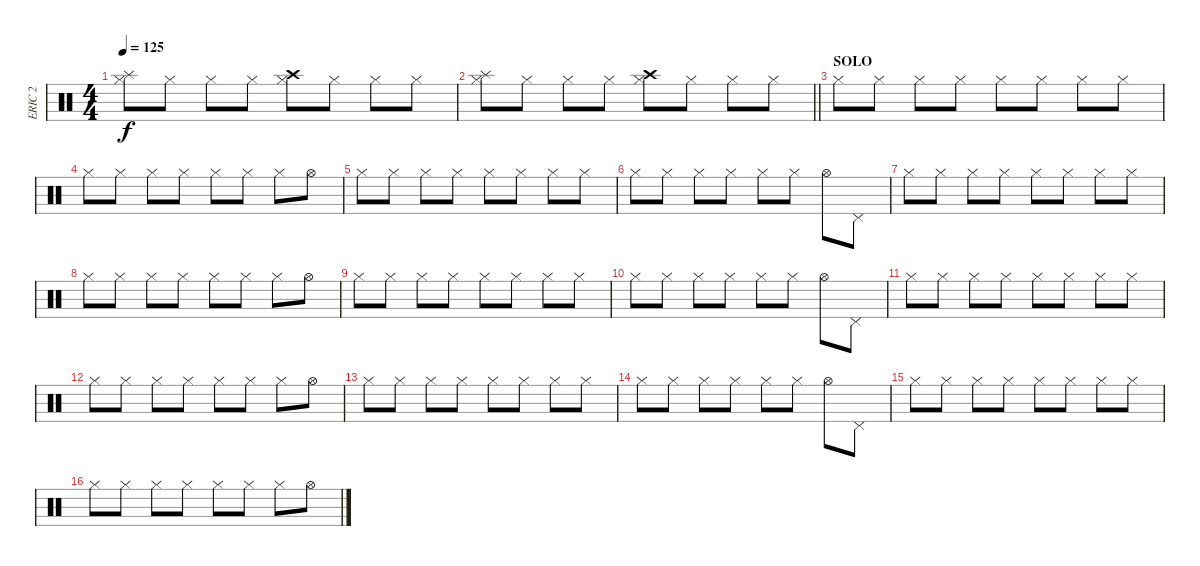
\track ("ERIC 2" "ERIC 2") {instrument percussion}
\staff {score}
\articulation defaults
\ts (4 4)
\tempo 125
\clef neutral
\ks c
("Splash (hit)" "Hi-Hat (closed)").8{dy f} "Hi-Hat (closed)".8 "Hi-Hat (closed)".8 "Hi-Hat (closed)".8 ("Crash high (hit)" "Hi-Hat (closed)").8 "Hi-Hat (closed)".8 "Hi-Hat (closed)".8 "Hi-Hat (closed)".8 |
\barLineRight lightlight
("Splash (hit)" "Hi-Hat (closed)").8 "Hi-Hat (closed)".8 "Hi-Hat (closed)".8 "Hi-Hat (closed)".8 ("Crash high (hit)" "Hi-Hat (closed)").8 "Hi-Hat (closed)".8 "Hi-Hat (closed)".8 "Hi-Hat (closed)".8 |
\section ("" "SOLO")
"Hi-Hat (closed)".8 "Hi-Hat (closed)".8 "Hi-Hat (closed)".8 "Hi-Hat (closed)".8 "Hi-Hat (closed)".8 "Hi-Hat (closed)".8 "Hi-Hat (closed)".8 "Hi-Hat (closed)".8 |
"Hi-Hat (closed)".8 "Hi-Hat (closed)".8 "Hi-Hat (closed)".8 "Hi-Hat (closed)".8 "Hi-Hat (closed)".8 "Hi-Hat (closed)".8 "Hi-Hat (closed)".8 "Hi-Hat (open)".8 |
"Hi-Hat (closed)".8 "Hi-Hat (closed)".8 "Hi-Hat (closed)".8 "Hi-Hat (closed)".8 "Hi-Hat (closed)".8 "Hi-Hat (closed)".8 "Hi-Hat (closed)".8 "Hi-Hat (closed)".8 |
"Hi-Hat (closed)".8 "Hi-Hat (closed)".8 "Hi-Hat (closed)".8 "Hi-Hat (closed)".8 "Hi-Hat (closed)".8 "Hi-Hat (closed)".8 "Hi-Hat (open)".8 "Pedal Hi-Hat (hit)".8 |
"Hi-Hat (closed)".8 "Hi-Hat (closed)".8 "Hi-Hat (closed)".8 "Hi-Hat (closed)".8 "Hi-Hat (closed)".8 "Hi-Hat (closed)".8 "Hi-Hat (closed)".8 "Hi-Hat (closed)".8 |
"Hi-Hat (closed)".8 "Hi-Hat (closed)".8 "Hi-Hat (closed)".8 "Hi-Hat (closed)".8 "Hi-Hat (closed)".8 "Hi-Hat (closed)".8 "Hi-Hat (closed)".8 "Hi-Hat (open)".8 |
"Hi-Hat (closed)".8 "Hi-Hat (closed)".8 "Hi-Hat (closed)".8 "Hi-Hat (closed)".8 "Hi-Hat (closed)".8 "Hi-Hat (closed)".8 "Hi-Hat (closed)".8 "Hi-Hat (closed)".8 |
"Hi-Hat (closed)".8 "Hi-Hat (closed)".8 "Hi-Hat (closed)".8 "Hi-Hat (closed)".8 "Hi-Hat (closed)".8 "Hi-Hat (closed)".8 "Hi-Hat (open)".8 "Pedal Hi-Hat (hit)".8 |
"Hi-Hat (closed)".8 "Hi-Hat (closed)".8 "Hi-Hat (closed)".8 "Hi-Hat (closed)".8 "Hi-Hat (closed)".8 "Hi-Hat (closed)".8 "Hi-Hat (closed)".8 "Hi-Hat (closed)".8 |
"Hi-Hat (closed)".8 "Hi-Hat (closed)".8 "Hi-Hat (closed)".8 "Hi-Hat (closed)".8 "Hi-Hat (closed)".8 "Hi-Hat (closed)".8 "Hi-Hat (closed)".8 "Hi-Hat (open)".8 |
"Hi-Hat (closed)".8 "Hi-Hat (closed)".8 "Hi-Hat (closed)".8 "Hi-Hat (closed)".8 "Hi-Hat (closed)".8 "Hi-Hat (closed)".8 "Hi-Hat (closed)".8 "Hi-Hat (closed)".8 |
"Hi-Hat (closed)".8 "Hi-Hat (closed)".8 "Hi-Hat (closed)".8 "Hi-Hat (closed)".8 "Hi-Hat (closed)".8 "Hi-Hat (closed)".8 "Hi-Hat (open)".8 "Pedal Hi-Hat (hit)".8 |
"Hi-Hat (closed)".8 "Hi-Hat (closed)".8 "Hi-Hat (closed)".8 "Hi-Hat (closed)".8 "Hi-Hat (closed)".8 "Hi-Hat (closed)".8 "Hi-Hat (closed)".8 "Hi-Hat (closed)".8 |
"Hi-Hat (closed)".8 "Hi-Hat (closed)".8 "Hi-Hat (closed)".8 "Hi-Hat (closed)".8 "Hi-Hat (closed)".8 "Hi-Hat (closed)".8 "Hi-Hat (closed)".8 "Hi-Hat (open)".8
